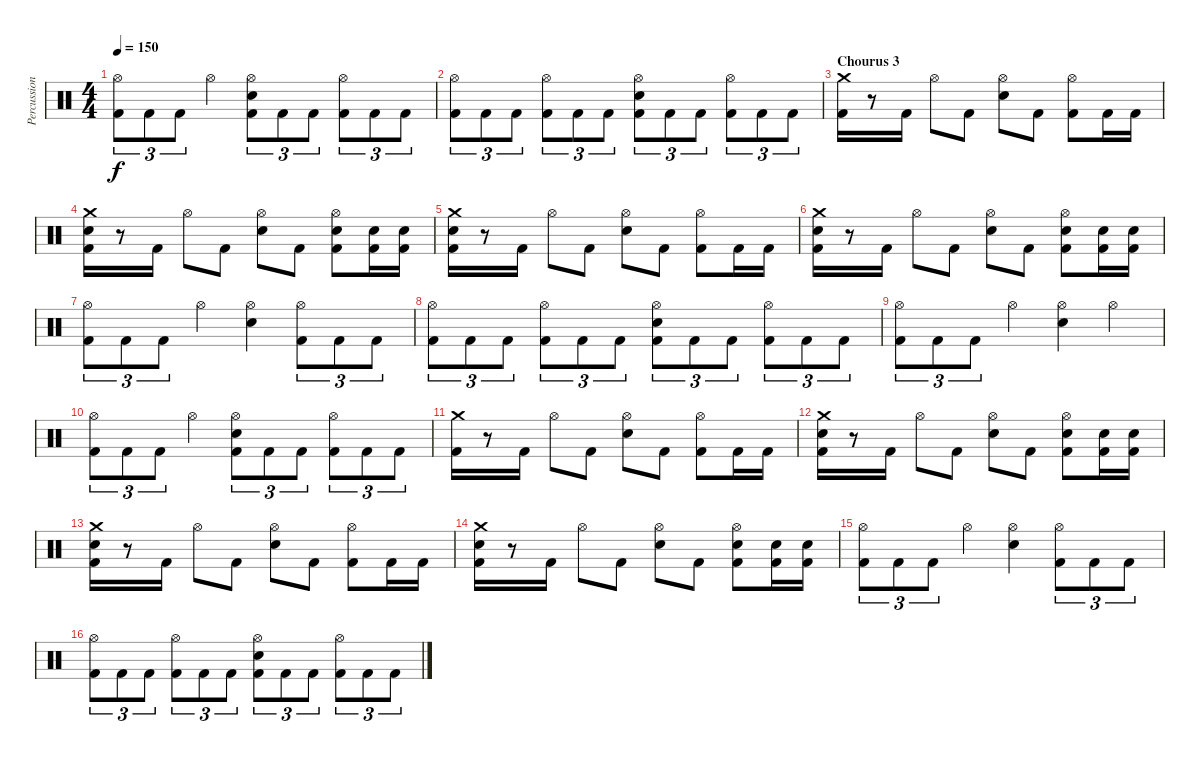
\track ("Percussion" "Percussion") {instrument percussion}
\staff {score}
\articulation defaults
\ts (4 4)
\tempo 150
\clef neutral
\ks c
("Hi-Hat (open)" "Kick (hit) 2").8{tu (3 2) dy f} "Kick (hit) 2".8{tu (3 2)} "Kick (hit) 2".8{tu (3 2)} "Hi-Hat (open)".4 ("Hi-Hat (open)" "Electric Snare (hit)" "Kick (hit) 2").8{tu (3 2)} "Kick (hit) 2".8{tu (3 2)} "Kick (hit) 2".8{tu (3 2)} ("Hi-Hat (open)" "Kick (hit) 2").8{tu (3 2)} "Kick (hit) 2".8{tu (3 2)} "Kick (hit) 2".8{tu (3 2)} |
("Hi-Hat (open)" "Kick (hit) 2").8{tu (3 2)} "Kick (hit) 2".8{tu (3 2)} "Kick (hit) 2".8{tu (3 2)} ("Hi-Hat (open)" "Kick (hit) 2").8{tu (3 2)} "Kick (hit) 2".8{tu (3 2)} "Kick (hit) 2".8{tu (3 2)} ("Hi-Hat (open)" "Electric Snare (hit)" "Kick (hit) 2").8{tu (3 2)} "Kick (hit) 2".8{tu (3 2)} "Kick (hit) 2".8{tu (3 2)} ("Hi-Hat (open)" "Kick (hit) 2").8{tu (3 2)} "Kick (hit) 2".8{tu (3 2)} "Kick (hit) 2".8{tu (3 2)} |
\section ("" "Chourus 3")
("Crash medium (hit)" "Kick (hit) 2").16 r.8 "Kick (hit) 2".16 "Hi-Hat (open)".8 "Kick (hit) 2".8 ("Hi-Hat (open)" "Electric Snare (hit)").8 "Kick (hit) 2".8 ("Hi-Hat (open)" "Kick (hit) 2").8 "Kick (hit) 2".16 "Kick (hit) 2".16 |
("Crash medium (hit)" "Electric Snare (hit)" "Kick (hit) 2").16 r.8 "Kick (hit) 2".16 "Hi-Hat (open)".8 "Kick (hit) 2".8 ("Hi-Hat (open)" "Electric Snare (hit)").8 "Kick (hit) 2".8 ("Hi-Hat (open)" "Electric Snare (hit)" "Kick (hit) 2").8 ("Electric Snare (hit)" "Kick (hit) 2").16 ("Electric Snare (hit)" "Kick (hit) 2").16 |
("Crash medium (hit)" "Electric Snare (hit)" "Kick (hit) 2").16 r.8 "Kick (hit) 2".16 "Hi-Hat (open)".8 "Kick (hit) 2".8 ("Hi-Hat (open)" "Electric Snare (hit)").8 "Kick (hit) 2".8 ("Hi-Hat (open)" "Kick (hit) 2").8 "Kick (hit) 2".16 "Kick (hit) 2".16 |
("Crash medium (hit)" "Electric Snare (hit)" "Kick (hit) 2").16 r.8 "Kick (hit) 2".16 "Hi-Hat (open)".8 "Kick (hit) 2".8 ("Hi-Hat (open)" "Electric Snare (hit)").8 "Kick (hit) 2".8 ("Hi-Hat (open)" "Electric Snare (hit)" "Kick (hit) 2").8 ("Electric Snare (hit)" "Kick (hit) 2").16 ("Electric Snare (hit)" "Kick (hit) 2").16 |
("Hi-Hat (open)" "Kick (hit) 2").8{tu (3 2)} "Kick (hit) 2".8{tu (3 2)} "Kick (hit) 2".8{tu (3 2)} "Hi-Hat (open)".4 ("Hi-Hat (open)" "Electric Snare (hit)").4 ("Hi-Hat (open)" "Kick (hit) 2").8{tu (3 2)} "Kick (hit) 2".8{tu (3 2)} "Kick (hit) 2".8{tu (3 2)} |
("Hi-Hat (open)" "Kick (hit) 2").8{tu (3 2)} "Kick (hit) 2".8{tu (3 2)} "Kick (hit) 2".8{tu (3 2)} ("Hi-Hat (open)" "Kick (hit) 2").8{tu (3 2)} "Kick (hit) 2".8{tu (3 2)} "Kick (hit) 2".8{tu (3 2)} ("Hi-Hat (open)" "Electric Snare (hit)" "Kick (hit) 2").8{tu (3 2)} "Kick (hit) 2".8{tu (3 2)} "Kick (hit) 2".8{tu (3 2)} ("Hi-Hat (open)" "Kick (hit) 2").8{tu (3 2)} "Kick (hit) 2".8{tu (3 2)} "Kick (hit) 2".8{tu (3 2)} |
("Hi-Hat (open)" "Kick (hit) 2").8{tu (3 2)} "Kick (hit) 2".8{tu (3 2)} "Kick (hit) 2".8{tu (3 2)} "Hi-Hat (open)".4 ("Hi-Hat (open)" "Electric Snare (hit)").4 "Hi-Hat (open)".4 |
("Hi-Hat (open)" "Kick (hit) 2").8{tu (3 2)} "Kick (hit) 2".8{tu (3 2)} "Kick (hit) 2".8{tu (3 2)} "Hi-Hat (open)".4 ("Hi-Hat (open)" "Electric Snare (hit)" "Kick (hit) 2").8{tu (3 2)} "Kick (hit) 2".8{tu (3 2)} "Kick (hit) 2".8{tu (3 2)} ("Hi-Hat (open)" "Kick (hit) 2").8{tu (3 2)} "Kick (hit) 2".8{tu (3 2)} "Kick (hit) 2".8{tu (3 2)} |
("Crash medium (hit)" "Kick (hit) 2").16 r.8 "Kick (hit) 2".16 "Hi-Hat (open)".8 "Kick (hit) 2".8 ("Hi-Hat (open)" "Electric Snare (hit)").8 "Kick (hit) 2".8 ("Hi-Hat (open)" "Kick (hit) 2").8 "Kick (hit) 2".16 "Kick (hit) 2".16 |
("Crash medium (hit)" "Electric Snare (hit)" "Kick (hit) 2").16 r.8 "Kick (hit) 2".16 "Hi-Hat (open)".8 "Kick (hit) 2".8 ("Hi-Hat (open)" "Electric Snare (hit)").8 "Kick (hit) 2".8 ("Hi-Hat (open)" "Electric Snare (hit)" "Kick (hit) 2").8 ("Electric Snare (hit)" "Kick (hit) 2").16 ("Electric Snare (hit)" "Kick (hit) 2").16 |
("Crash medium (hit)" "Electric Snare (hit)" "Kick (hit) 2").16 r.8 "Kick (hit) 2".16 "Hi-Hat (open)".8 "Kick (hit) 2".8 ("Hi-Hat (open)" "Electric Snare (hit)").8 "Kick (hit) 2".8 ("Hi-Hat (open)" "Kick (hit) 2").8 "Kick (hit) 2".16 "Kick (hit) 2".16 |
("Crash medium (hit)" "Electric Snare (hit)" "Kick (hit) 2").16 r.8 "Kick (hit) 2".16 "Hi-Hat (open)".8 "Kick (hit) 2".8 ("Hi-Hat (open)" "Electric Snare (hit)").8 "Kick (hit) 2".8 ("Hi-Hat (open)" "Electric Snare (hit)" "Kick (hit) 2").8 ("Electric Snare (hit)" "Kick (hit) 2").16 ("Electric Snare (hit)" "Kick (hit) 2").16 |
("Hi-Hat (open)" "Kick (hit) 2").8{tu (3 2)} "Kick (hit) 2".8{tu (3 2)} "Kick (hit) 2".8{tu (3 2)} "Hi-Hat (open)".4 ("Hi-Hat (open)" "Electric Snare (hit)").4 ("Hi-Hat (open)" "Kick (hit) 2").8{tu (3 2)} "Kick (hit) 2".8{tu (3 2)} "Kick (hit) 2".8{tu (3 2)} |
("Hi-Hat (open)" "Kick (hit) 2").8{tu (3 2)} "Kick (hit) 2".8{tu (3 2)} "Kick (hit) 2".8{tu (3 2)} ("Hi-Hat (open)" "Kick (hit) 2").8{tu (3 2)} "Kick (hit) 2".8{tu (3 2)} "Kick (hit) 2".8{tu (3 2)} ("Hi-Hat (open)" "Electric Snare (hit)" "Kick (hit) 2").8{tu (3 2)} "Kick (hit) 2".8{tu (3 2)} "Kick (hit) 2".8{tu (3 2)} ("Hi-Hat (open)" "Kick (hit) 2").8{tu (3 2)} "Kick (hit) 2".8{tu (3 2)} "Kick (hit) 2".8{tu (3 2)}
